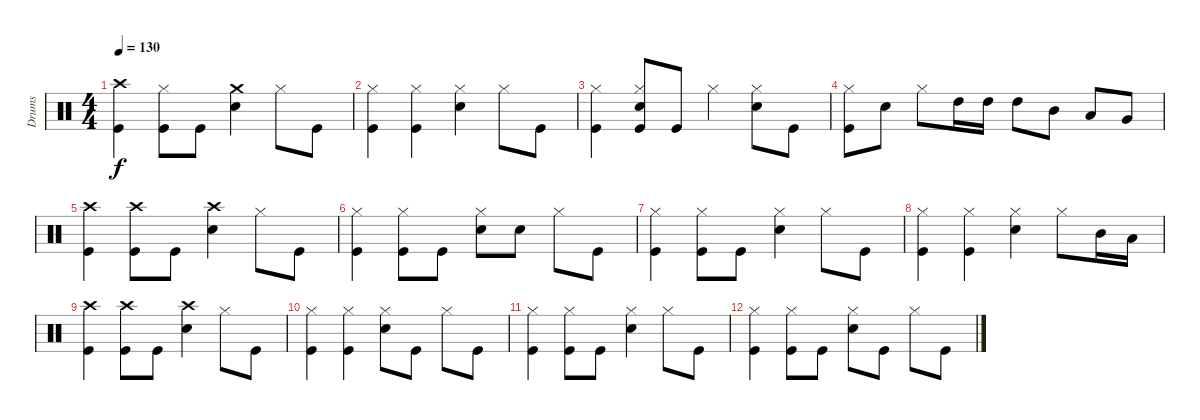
\track ("Drums" "Drums") {instrument percussion}
\staff {score}
\articulation defaults
\ts (4 4)
\tempo 130
\clef neutral
\ks c
("Crash high (hit)" "Kick (hit)").4{dy f} ("Hi-Hat (closed)" "Kick (hit)").8 "Kick (hit)".8 ("Crash medium (hit)" "Snare (hit) 2").4 "Hi-Hat (closed)".8 "Kick (hit)".8 |
("Hi-Hat (closed)" "Kick (hit)").4 ("Hi-Hat (closed)" "Kick (hit)").4 ("Hi-Hat (closed)" "Snare (hit) 2").4 "Hi-Hat (closed)".8 "Kick (hit)".8 |
("Hi-Hat (closed)" "Kick (hit)").4 ("Hi-Hat (closed)" "Snare (hit) 2" "Kick (hit)").8 "Kick (hit)".8 "Hi-Hat (closed)".4 ("Hi-Hat (closed)" "Snare (hit) 2").8 "Kick (hit)".8 |
("Hi-Hat (closed)" "Kick (hit)").8 "Snare (hit) 2".8 "Hi-Hat (closed)".8 "High Tom (hit)".16 "High Tom (hit)".16 "High Tom (hit)".8 "Mid Tom (hit)".8 "Low Tom (hit)".8 "Very Low Tom (hit)".8 |
("Crash high (hit)" "Kick (hit)").4 ("Crash high (hit)" "Kick (hit)").8 "Kick (hit)".8 ("Crash high (hit)" "Snare (hit) 2").4 "Hi-Hat (closed)".8 "Kick (hit)".8 |
("Hi-Hat (closed)" "Kick (hit)").4 ("Hi-Hat (closed)" "Kick (hit)").8 "Kick (hit)".8 ("Hi-Hat (closed)" "Snare (hit) 2").8 "Snare (hit) 2".8 "Hi-Hat (closed)".8 "Kick (hit)".8 |
("Hi-Hat (closed)" "Kick (hit)").4 ("Hi-Hat (closed)" "Kick (hit)").8 "Kick (hit)".8 ("Hi-Hat (closed)" "Snare (hit) 2").4 "Hi-Hat (closed)".8 "Kick (hit)".8 |
("Hi-Hat (closed)" "Kick (hit)").4{volume 0} ("Hi-Hat (closed)" "Kick (hit)").4 ("Hi-Hat (closed)" "Snare (hit) 2").4 "Hi-Hat (closed)".8 "Mid Tom (hit)".16 "Low Tom (hit)".16 |
("Crash high (hit)" "Kick (hit)").4 ("Crash high (hit)" "Kick (hit)").8 "Kick (hit)".8 ("Crash high (hit)" "Snare (hit) 2").4 "Hi-Hat (closed)".8 "Kick (hit)".8 |
("Hi-Hat (closed)" "Kick (hit)").4 ("Hi-Hat (closed)" "Kick (hit)").4 ("Hi-Hat (closed)" "Snare (hit) 2").8 "Kick (hit)".8 "Hi-Hat (closed)".8 "Kick (hit)".8 |
("Hi-Hat (closed)" "Kick (hit)").4 ("Hi-Hat (closed)" "Kick (hit)").8 "Kick (hit)".8 ("Hi-Hat (closed)" "Snare (hit) 2").4 "Hi-Hat (closed)".8 "Kick (hit)".8 |
("Hi-Hat (closed)" "Kick (hit)").4 ("Hi-Hat (closed)" "Kick (hit)").8 "Kick (hit)".8 ("Hi-Hat (closed)" "Snare (hit) 2").8 "Kick (hit)".8 "Hi-Hat (closed)".8 "Kick (hit)".8
